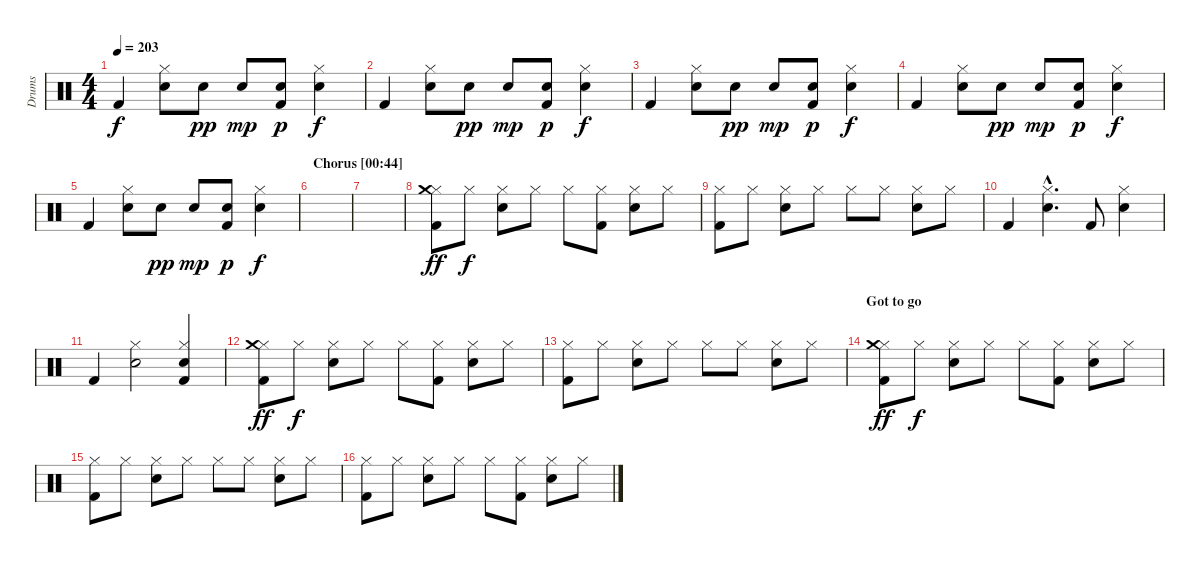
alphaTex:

\track ("Drums" "Drums") {instrument percussion}
\staff {score}
\articulation defaults
\ts (4 4)
\tempo 203
\clef neutral
\ks c "Kick (hit) 2".4{dy f}
("Hi-Hat (closed)" "Electric Snare (hit)").8 "Snare (hit) 2".8{dy pp} "Snare (hit) 2".8{dy mp} ("Snare (hit) 2" "Kick (hit) 2").8{dy p} ("Hi-Hat (closed)" "Electric Snare (hit)").4{dy f} |
"Kick (hit) 2".4 ("Hi-Hat (closed)" "Electric Snare (hit)").8 "Snare (hit) 2".8{dy pp} "Snare (hit) 2".8{dy mp} ("Snare (hit) 2" "Kick (hit) 2").8{dy p} ("Hi-Hat (closed)" "Electric Snare (hit)").4{dy f} |
"Kick (hit) 2".4 ("Hi-Hat (closed)" "Electric Snare (hit)").8 "Snare (hit) 2".8{dy pp} "Snare (hit) 2".8{dy mp} ("Snare (hit) 2" "Kick (hit) 2").8{dy p} ("Hi-Hat (closed)" "Electric Snare (hit)").4{dy f} |
"Kick (hit) 2".4 ("Hi-Hat (closed)" "Electric Snare (hit)").8 "Snare (hit) 2".8{dy pp} "Snare (hit) 2".8{dy mp} ("Snare (hit) 2" "Kick (hit) 2").8{dy p} ("Hi-Hat (closed)" "Electric Snare (hit)").4{dy f} |
"Kick (hit) 2".4 ("Hi-Hat (closed)" "Electric Snare (hit)").8 "Snare (hit) 2".8{dy pp} "Snare (hit) 2".8{dy mp} ("Snare (hit) 2" "Kick (hit) 2").8{dy p} ("Hi-Hat (closed)" "Electric Snare (hit)").4{dy f} |
\section ("" "Chorus [00:44]")
|
|
("Hi-Hat (closed)" "Crash medium (hit)" "Kick (hit) 2").8{dy ff} "Hi-Hat (closed)".8{dy f} ("Hi-Hat (closed)" "Electric Snare (hit)").8 "Hi-Hat (closed)".8 "Hi-Hat (closed)".8 ("Hi-Hat (closed)" "Kick (hit) 2").8 ("Hi-Hat (closed)" "Electric Snare (hit)").8 "Hi-Hat (closed)".8 |
("Hi-Hat (closed)" "Kick (hit) 2").8 "Hi-Hat (closed)".8 ("Hi-Hat (closed)" "Electric Snare (hit)").8 "Hi-Hat (closed)".8 "Hi-Hat (closed)".8 "Hi-Hat (closed)".8 ("Hi-Hat (closed)" "Electric Snare (hit)").8 "Hi-Hat (closed)".8 |
"Kick (hit) 2".4 ("Hi-Hat (closed)"{hac} "Electric Snare (hit)"{hac}).4{d} "Kick (hit) 2".8 ("Hi-Hat (closed)" "Electric Snare (hit)").4 |
"Kick (hit) 2".4 ("Hi-Hat (closed)" "Electric Snare (hit)").2 ("Hi-Hat (closed)" "Electric Snare (hit)" "Kick (hit) 2").4 |
("Hi-Hat (closed)" "Crash medium (hit)" "Kick (hit) 2").8{dy ff} "Hi-Hat (closed)".8{dy f} ("Hi-Hat (closed)" "Electric Snare (hit)").8 "Hi-Hat (closed)".8 "Hi-Hat (closed)".8 ("Hi-Hat (closed)" "Kick (hit) 2").8 ("Hi-Hat (closed)" "Electric Snare (hit)").8 "Hi-Hat (closed)".8 |
("Hi-Hat (closed)" "Kick (hit) 2").8 "Hi-Hat (closed)".8 ("Hi-Hat (closed)" "Electric Snare (hit)").8 "Hi-Hat (closed)".8 "Hi-Hat (closed)".8 "Hi-Hat (closed)".8 ("Hi-Hat (closed)" "Electric Snare (hit)").8 "Hi-Hat (closed)".8 |
\section ("" "Got to go")
("Hi-Hat (closed)" "Crash medium (hit)" "Kick (hit) 2").8{dy ff} "Hi-Hat (closed)".8{dy f} ("Hi-Hat (closed)" "Electric Snare (hit)").8 "Hi-Hat (closed)".8 "Hi-Hat (closed)".8 ("Hi-Hat (closed)" "Kick (hit) 2").8 ("Hi-Hat (closed)" "Electric Snare (hit)").8 "Hi-Hat (closed)".8 |
("Hi-Hat (closed)" "Kick (hit) 2").8 "Hi-Hat (closed)".8 ("Hi-Hat (closed)" "Electric Snare (hit)").8 "Hi-Hat (closed)".8 "Hi-Hat (closed)".8 "Hi-Hat (closed)".8 ("Hi-Hat (closed)" "Electric Snare (hit)").8 "Hi-Hat (closed)".8 |
("Hi-Hat (closed)" "Kick (hit) 2").8 "Hi-Hat (closed)".8 ("Hi-Hat (closed)" "Electric Snare (hit)").8 "Hi-Hat (closed)".8 "Hi-Hat (closed)".8 ("Hi-Hat (closed)" "Kick (hit) 2").8 ("Hi-Hat (closed)" "Electric Snare (hit)").8 "Hi-Hat (closed)".8
